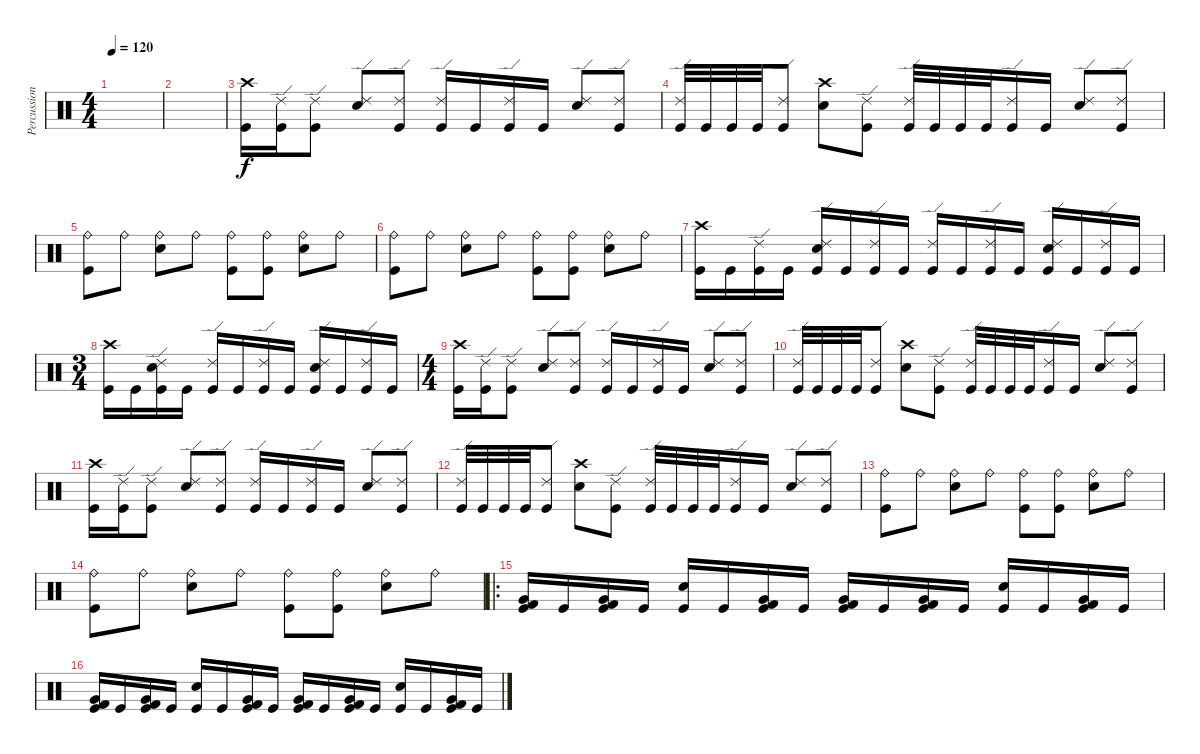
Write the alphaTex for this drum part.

\track ("Percussion" "Percussion") {instrument percussion}
\staff {score}
\articulation defaults
\ts (4 4)
\tempo 120
\clef neutral
\ks c
|
|
("Crash high (hit)" "Kick (hit)").16 ("Ride (edge) 2" "Kick (hit)").16 ("Ride (edge) 2" "Kick (hit)").8 ("Ride (edge) 2" "Electric Snare (hit)").8 ("Ride (edge) 2" "Kick (hit)").8 ("Ride (edge) 2" "Kick (hit)").16 "Kick (hit)".16 ("Ride (edge) 2" "Kick (hit)").16 "Kick (hit)".16 ("Ride (edge) 2" "Electric Snare (hit)").8 ("Ride (edge) 2" "Kick (hit)").8 |
("Ride (edge) 2" "Kick (hit)").32 "Kick (hit)".32 "Kick (hit)".32 "Kick (hit)".32 ("Ride (edge) 2" "Kick (hit)").8 ("Crash high (hit)" "Electric Snare (hit)").8 ("Ride (edge) 2" "Kick (hit)").8 ("Ride (edge) 2" "Kick (hit)").32 "Kick (hit)".32 "Kick (hit)".32 "Kick (hit)".32 ("Ride (edge) 2" "Kick (hit)").16 "Kick (hit)".16 ("Ride (edge) 2" "Electric Snare (hit)").8 ("Ride (edge) 2" "Kick (hit)").8 |
("Ride (bell)" "Kick (hit)").8 "Ride (bell)".8 ("Ride (bell)" "Electric Snare (hit)").8 "Ride (bell)".8 ("Ride (bell)" "Kick (hit)").8 ("Ride (bell)" "Kick (hit)").8 ("Ride (bell)" "Electric Snare (hit)").8 "Ride (bell)".8 |
("Ride (bell)" "Kick (hit)").8 "Ride (bell)".8 ("Ride (bell)" "Electric Snare (hit)").8 "Ride (bell)".8 ("Ride (bell)" "Kick (hit)").8 ("Ride (bell)" "Kick (hit)").8 ("Ride (bell)" "Electric Snare (hit)").8 "Ride (bell)".8 |
("Crash high (hit)" "Kick (hit)").16 "Kick (hit)".16 ("Ride (edge) 2" "Kick (hit)").16 "Kick (hit)".16 ("Ride (edge) 2" "Electric Snare (hit)" "Kick (hit)").16 "Kick (hit)".16 ("Ride (edge) 2" "Kick (hit)").16 "Kick (hit)".16 ("Ride (edge) 2" "Kick (hit)").16 "Kick (hit)".16 ("Ride (edge) 2" "Kick (hit)").16 "Kick (hit)".16 ("Ride (edge) 2" "Electric Snare (hit)" "Kick (hit)").16 "Kick (hit)".16 ("Ride (edge) 2" "Kick (hit)").16 "Kick (hit)".16 |
\ts (3 4)
("Crash high (hit)" "Kick (hit)").16 "Kick (hit)".16 ("Ride (edge) 2" "Electric Snare (hit)" "Kick (hit)").16 "Kick (hit)".16 ("Ride (edge) 2" "Kick (hit)").16 "Kick (hit)".16 ("Ride (edge) 2" "Kick (hit)").16 "Kick (hit)".16 ("Ride (edge) 2" "Electric Snare (hit)" "Kick (hit)").16 "Kick (hit)".16 ("Ride (edge) 2" "Kick (hit)").16 "Kick (hit)".16 |
\ts (4 4)
("Crash high (hit)" "Kick (hit)").16 ("Ride (edge) 2" "Kick (hit)").16 ("Ride (edge) 2" "Kick (hit)").8 ("Ride (edge) 2" "Electric Snare (hit)").8 ("Ride (edge) 2" "Kick (hit)").8 ("Ride (edge) 2" "Kick (hit)").16 "Kick (hit)".16 ("Ride (edge) 2" "Kick (hit)").16 "Kick (hit)".16 ("Ride (edge) 2" "Electric Snare (hit)").8 ("Ride (edge) 2" "Kick (hit)").8 |
("Ride (edge) 2" "Kick (hit)").32 "Kick (hit)".32 "Kick (hit)".32 "Kick (hit)".32 ("Ride (edge) 2" "Kick (hit)").8 ("Crash high (hit)" "Electric Snare (hit)").8 ("Ride (edge) 2" "Kick (hit)").8 ("Ride (edge) 2" "Kick (hit)").32 "Kick (hit)".32 "Kick (hit)".32 "Kick (hit)".32 ("Ride (edge) 2" "Kick (hit)").16 "Kick (hit)".16 ("Ride (edge) 2" "Electric Snare (hit)").8 ("Ride (edge) 2" "Kick (hit)").8 |
("Crash high (hit)" "Kick (hit)").16 ("Ride (edge) 2" "Kick (hit)").16 ("Ride (edge) 2" "Kick (hit)").8 ("Ride (edge) 2" "Electric Snare (hit)").8 ("Ride (edge) 2" "Kick (hit)").8 ("Ride (edge) 2" "Kick (hit)").16 "Kick (hit)".16 ("Ride (edge) 2" "Kick (hit)").16 "Kick (hit)".16 ("Ride (edge) 2" "Electric Snare (hit)").8 ("Ride (edge) 2" "Kick (hit)").8 |
("Ride (edge) 2" "Kick (hit)").32 "Kick (hit)".32 "Kick (hit)".32 "Kick (hit)".32 ("Ride (edge) 2" "Kick (hit)").8 ("Crash high (hit)" "Electric Snare (hit)").8 ("Ride (edge) 2" "Kick (hit)").8 ("Ride (edge) 2" "Kick (hit)").32 "Kick (hit)".32 "Kick (hit)".32 "Kick (hit)".32 ("Ride (edge) 2" "Kick (hit)").16 "Kick (hit)".16 ("Ride (edge) 2" "Electric Snare (hit)").8 ("Ride (edge) 2" "Kick (hit)").8 |
("Ride (bell)" "Kick (hit)").8 "Ride (bell)".8 ("Ride (bell)" "Electric Snare (hit)").8 "Ride (bell)".8 ("Ride (bell)" "Kick (hit)").8 ("Ride (bell)" "Kick (hit)").8 ("Ride (bell)" "Electric Snare (hit)").8 "Ride (bell)".8 |
("Ride (bell)" "Kick (hit)").8 "Ride (bell)".8 ("Ride (bell)" "Electric Snare (hit)").8 "Ride (bell)".8 ("Ride (bell)" "Kick (hit)").8 ("Ride (bell)" "Kick (hit)").8 ("Ride (bell)" "Electric Snare (hit)").8 "Ride (bell)".8 |
\ro
("Very Low Tom (hit)" "Kick (hit) 2" "Kick (hit)").16 "Kick (hit)".16 ("Very Low Tom (hit)" "Kick (hit) 2" "Kick (hit)").16 "Kick (hit)".16 ("Electric Snare (hit)" "Kick (hit)").16 "Kick (hit)".16 ("Very Low Tom (hit)" "Kick (hit) 2" "Kick (hit)").16 "Kick (hit)".16 ("Very Low Tom (hit)" "Kick (hit) 2" "Kick (hit)").16 "Kick (hit)".16 ("Very Low Tom (hit)" "Kick (hit) 2" "Kick (hit)").16 "Kick (hit)".16 ("Electric Snare (hit)" "Kick (hit)").16 "Kick (hit)".16 ("Very Low Tom (hit)" "Kick (hit) 2" "Kick (hit)").16 "Kick (hit)".16 |
("Very Low Tom (hit)" "Kick (hit) 2" "Kick (hit)").16 "Kick (hit)".16 ("Very Low Tom (hit)" "Kick (hit) 2" "Kick (hit)").16 "Kick (hit)".16 ("Electric Snare (hit)" "Kick (hit)").16 "Kick (hit)".16 ("Very Low Tom (hit)" "Kick (hit) 2" "Kick (hit)").16 "Kick (hit)".16 ("Very Low Tom (hit)" "Kick (hit) 2" "Kick (hit)").16 "Kick (hit)".16 ("Very Low Tom (hit)" "Kick (hit) 2" "Kick (hit)").16 "Kick (hit)".16 ("Electric Snare (hit)" "Kick (hit)").16 "Kick (hit)".16 ("Very Low Tom (hit)" "Kick (hit) 2" "Kick (hit)").16 "Kick (hit)".16
